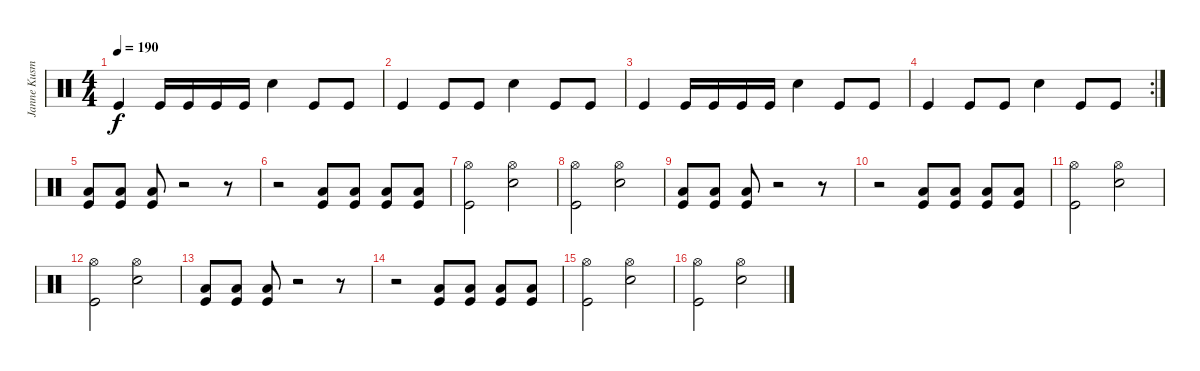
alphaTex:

\track ("Janne Kusmin" "Janne Kusm") {instrument percussion}
\staff {score}
\articulation defaults
\ts (4 4)
\tempo 190
\clef neutral
\ks c "Kick (hit)".4{dy f} "Kick (hit)".16 "Kick (hit)".16 "Kick (hit)".16 "Kick (hit)".16 "Electric Snare (hit)".4 "Kick (hit)".8 "Kick (hit)".8
|
"Kick (hit)".4 "Kick (hit)".8 "Kick (hit)".8 "Electric Snare (hit)".4 "Kick (hit)".8 "Kick (hit)".8 |
"Kick (hit)".4 "Kick (hit)".16 "Kick (hit)".16 "Kick (hit)".16 "Kick (hit)".16 "Electric Snare (hit)".4 "Kick (hit)".8 "Kick (hit)".8 |
\rc 2 "Kick (hit)".4 "Kick (hit)".8 "Kick (hit)".8 "Electric Snare (hit)".4 "Kick (hit)".8 "Kick (hit)".8
|
("Low Tom (hit)" "Kick (hit)").8 ("Low Tom (hit)" "Kick (hit)").8 ("Low Tom (hit)" "Kick (hit)").8 r.2 r.8 |
r.2 ("Low Tom (hit)" "Kick (hit)").8 ("Low Tom (hit)" "Kick (hit)").8 ("Low Tom (hit)" "Kick (hit)").8 ("Low Tom (hit)" "Kick (hit)").8 |
("Hi-Hat (open)" "Kick (hit)").2 ("Hi-Hat (open)" "Electric Snare (hit)").2 |
("Hi-Hat (open)" "Kick (hit)").2 ("Hi-Hat (open)" "Electric Snare (hit)").2 |
("Low Tom (hit)" "Kick (hit)").8 ("Low Tom (hit)" "Kick (hit)").8 ("Low Tom (hit)" "Kick (hit)").8 r.2 r.8 |
r.2 ("Low Tom (hit)" "Kick (hit)").8 ("Low Tom (hit)" "Kick (hit)").8 ("Low Tom (hit)" "Kick (hit)").8 ("Low Tom (hit)" "Kick (hit)").8 |
("Hi-Hat (open)" "Kick (hit)").2 ("Hi-Hat (open)" "Electric Snare (hit)").2 |
("Hi-Hat (open)" "Kick (hit)").2 ("Hi-Hat (open)" "Electric Snare (hit)").2 |
("Low Tom (hit)" "Kick (hit)").8 ("Low Tom (hit)" "Kick (hit)").8 ("Low Tom (hit)" "Kick (hit)").8 r.2 r.8 |
r.2 ("Low Tom (hit)" "Kick (hit)").8 ("Low Tom (hit)" "Kick (hit)").8 ("Low Tom (hit)" "Kick (hit)").8 ("Low Tom (hit)" "Kick (hit)").8 |
("Hi-Hat (open)" "Kick (hit)").2 ("Hi-Hat (open)" "Electric Snare (hit)").2 |
("Hi-Hat (open)" "Kick (hit)").2 ("Hi-Hat (open)" "Electric Snare (hit)").2
